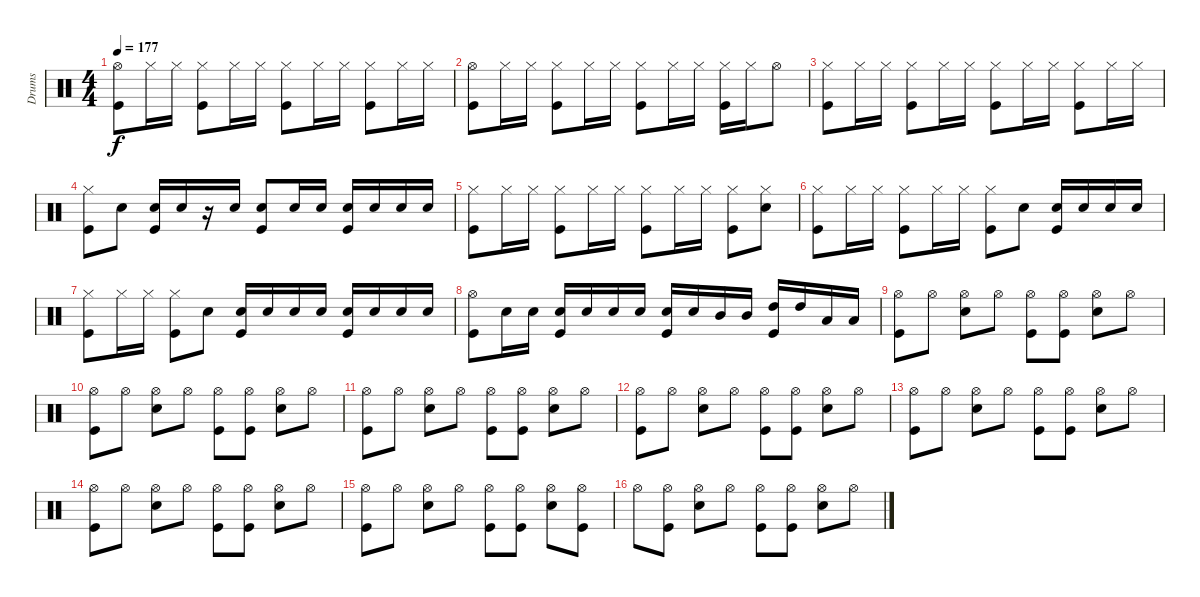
\track ("Drums" "Drums") {instrument percussion}
\staff {score}
\articulation defaults
\ts (4 4)
\tempo 177
\clef neutral
\ks c
("Hi-Hat (open)" "Kick (hit)").8{dy f} "Hi-Hat (closed)".16 "Hi-Hat (closed)".16 ("Hi-Hat (closed)" "Kick (hit)").8 "Hi-Hat (closed)".16 "Hi-Hat (closed)".16 ("Hi-Hat (closed)" "Kick (hit)").8 "Hi-Hat (closed)".16 "Hi-Hat (closed)".16 ("Hi-Hat (closed)" "Kick (hit)").8 "Hi-Hat (closed)".16 "Hi-Hat (closed)".16 |
("Hi-Hat (open)" "Kick (hit)").8 "Hi-Hat (closed)".16 "Hi-Hat (closed)".16 ("Hi-Hat (closed)" "Kick (hit)").8 "Hi-Hat (closed)".16 "Hi-Hat (closed)".16 ("Hi-Hat (closed)" "Kick (hit)").8 "Hi-Hat (closed)".16 "Hi-Hat (closed)".16 ("Hi-Hat (closed)" "Kick (hit)").16 "Hi-Hat (closed)".16 "Hi-Hat (open)".8 |
("Hi-Hat (closed)" "Kick (hit)").8 "Hi-Hat (closed)".16 "Hi-Hat (closed)".16 ("Hi-Hat (closed)" "Kick (hit)").8 "Hi-Hat (closed)".16 "Hi-Hat (closed)".16 ("Hi-Hat (closed)" "Kick (hit)").8 "Hi-Hat (closed)".16 "Hi-Hat (closed)".16 ("Hi-Hat (closed)" "Kick (hit)").8 "Hi-Hat (closed)".16 "Hi-Hat (closed)".16 |
("Hi-Hat (closed)" "Kick (hit)").8 "Snare (hit) 2".8 ("Snare (hit) 2" "Kick (hit)").16 "Snare (hit) 2".16 r.16 "Snare (hit) 2".16 ("Snare (hit) 2" "Kick (hit)").8 "Snare (hit) 2".16 "Snare (hit) 2".16 ("Snare (hit) 2" "Kick (hit)").16 "Snare (hit) 2".16 "Snare (hit) 2".16 "Snare (hit) 2".16 |
("Hi-Hat (closed)" "Kick (hit)").8 "Hi-Hat (closed)".16 "Hi-Hat (closed)".16 ("Hi-Hat (closed)" "Kick (hit)").8 "Hi-Hat (closed)".16 "Hi-Hat (closed)".16 ("Hi-Hat (closed)" "Kick (hit)").8 "Hi-Hat (closed)".16 "Hi-Hat (closed)".16 ("Hi-Hat (closed)" "Kick (hit)").8 ("Hi-Hat (closed)" "Snare (hit) 2").8 |
("Hi-Hat (closed)" "Kick (hit)").8 "Hi-Hat (closed)".16 "Hi-Hat (closed)".16 ("Hi-Hat (closed)" "Kick (hit)").8 "Hi-Hat (closed)".16 "Hi-Hat (closed)".16 ("Hi-Hat (closed)" "Kick (hit)").8 "Snare (hit) 2".8 ("Snare (hit) 2" "Kick (hit)").16 "Snare (hit) 2".16 "Snare (hit) 2".16 "Snare (hit) 2".16 |
("Hi-Hat (closed)" "Kick (hit)").8 "Hi-Hat (closed)".16 "Hi-Hat (closed)".16 ("Hi-Hat (closed)" "Kick (hit)").8 "Snare (hit) 2".8 ("Snare (hit) 2" "Kick (hit)").16 "Snare (hit) 2".16 "Snare (hit) 2".16 "Snare (hit) 2".16 ("Snare (hit) 2" "Kick (hit)").16 "Snare (hit) 2".16 "Snare (hit) 2".16 "Snare (hit) 2".16 |
("Hi-Hat (open)" "Kick (hit)").8 "Snare (hit) 2".16 "Snare (hit) 2".16 ("Snare (hit) 2" "Kick (hit)").16 "Snare (hit) 2".16 "Snare (hit) 2".16 "Snare (hit) 2".16 ("Snare (hit) 2" "Kick (hit)").16 "Snare (hit) 2".16 "Mid Tom (hit)".16 "Mid Tom (hit)".16 ("High Tom (hit)" "Kick (hit)").16 "High Tom (hit)".16 "Low Tom (hit)".16 "Low Tom (hit)".16 |
("Hi-Hat (open)" "Kick (hit)").8 "Hi-Hat (open)".8 ("Hi-Hat (open)" "Snare (hit) 2").8 "Hi-Hat (open)".8 ("Hi-Hat (open)" "Kick (hit)").8 ("Hi-Hat (open)" "Kick (hit)").8 ("Hi-Hat (open)" "Snare (hit) 2").8 "Hi-Hat (open)".8 |
("Hi-Hat (open)" "Kick (hit)").8 "Hi-Hat (open)".8 ("Hi-Hat (open)" "Snare (hit) 2").8 "Hi-Hat (open)".8 ("Hi-Hat (open)" "Kick (hit)").8 ("Hi-Hat (open)" "Kick (hit)").8 ("Hi-Hat (open)" "Snare (hit) 2").8 "Hi-Hat (open)".8 |
("Hi-Hat (open)" "Kick (hit)").8 "Hi-Hat (open)".8 ("Hi-Hat (open)" "Snare (hit) 2").8 "Hi-Hat (open)".8 ("Hi-Hat (open)" "Kick (hit)").8 ("Hi-Hat (open)" "Kick (hit)").8 ("Hi-Hat (open)" "Snare (hit) 2").8 "Hi-Hat (open)".8 |
("Hi-Hat (open)" "Kick (hit)").8 "Hi-Hat (open)".8 ("Hi-Hat (open)" "Snare (hit) 2").8 "Hi-Hat (open)".8 ("Hi-Hat (open)" "Kick (hit)").8 ("Hi-Hat (open)" "Kick (hit)").8 ("Hi-Hat (open)" "Snare (hit) 2").8 "Hi-Hat (open)".8 |
("Hi-Hat (open)" "Kick (hit)").8 "Hi-Hat (open)".8 ("Hi-Hat (open)" "Snare (hit) 2").8 "Hi-Hat (open)".8 ("Hi-Hat (open)" "Kick (hit)").8 ("Hi-Hat (open)" "Kick (hit)").8 ("Hi-Hat (open)" "Snare (hit) 2").8 "Hi-Hat (open)".8 |
("Hi-Hat (open)" "Kick (hit)").8 "Hi-Hat (open)".8 ("Hi-Hat (open)" "Snare (hit) 2").8 "Hi-Hat (open)".8 ("Hi-Hat (open)" "Kick (hit)").8 ("Hi-Hat (open)" "Kick (hit)").8 ("Hi-Hat (open)" "Snare (hit) 2").8 "Hi-Hat (open)".8 |
("Hi-Hat (open)" "Kick (hit)").8 "Hi-Hat (open)".8 ("Hi-Hat (open)" "Snare (hit) 2").8 "Hi-Hat (open)".8 ("Hi-Hat (open)" "Kick (hit)").8 ("Hi-Hat (open)" "Kick (hit)").8 ("Hi-Hat (open)" "Snare (hit) 2").8 ("Hi-Hat (open)" "Kick (hit)").8 |
"Hi-Hat (open)".8 ("Hi-Hat (open)" "Kick (hit)").8 ("Hi-Hat (open)" "Snare (hit) 2").8 "Hi-Hat (open)".8 ("Hi-Hat (open)" "Kick (hit)").8 ("Hi-Hat (open)" "Kick (hit)").8 ("Hi-Hat (open)" "Snare (hit) 2").8 "Hi-Hat (open)".8
